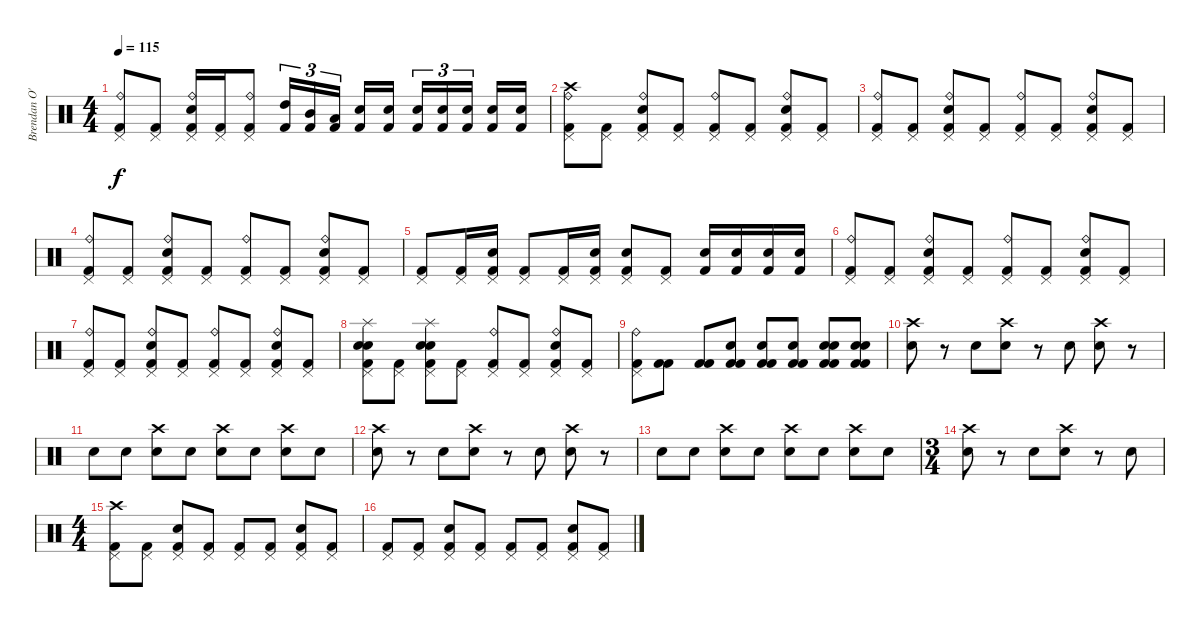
\track ("Brendan O'Neill" "Brendan O'") {instrument percussion}
\staff {score}
\articulation defaults
\ts (4 4)
\tempo 115
\clef neutral
\ks c
("Ride (bell)" "Pedal Hi-Hat (hit)" "Kick (hit) 2").8{dy f} ("Pedal Hi-Hat (hit)" "Kick (hit) 2").8 ("Ride (bell)" "Pedal Hi-Hat (hit)" "Snare (hit) 2" "Kick (hit) 2").16 ("Pedal Hi-Hat (hit)" "Kick (hit) 2").16 ("Ride (bell)" "Pedal Hi-Hat (hit)" "Kick (hit) 2").8 ("High Tom (hit)" "Kick (hit) 2").16{tu (3 2)} ("Mid Tom (hit)" "Kick (hit) 2").16{tu (3 2)} ("Low Tom (hit)" "Kick (hit) 2").16{tu (3 2)} ("Electric Snare (hit)" "Kick (hit) 2").16 ("Snare (hit) 2" "Kick (hit) 2").16 ("Electric Snare (hit)" "Kick (hit) 2").16{tu (3 2)} ("Electric Snare (hit)" "Kick (hit) 2").16{tu (3 2)} ("Electric Snare (hit)" "Kick (hit) 2").16{tu (3 2)} ("Snare (hit) 2" "Kick (hit) 2").16 ("Electric Snare (hit)" "Kick (hit) 2").16 |
("Crash high (hit)" "Ride (bell)" "Pedal Hi-Hat (hit)" "Kick (hit) 2").8 ("Pedal Hi-Hat (hit)" "Kick (hit) 2").8 ("Ride (bell)" "Pedal Hi-Hat (hit)" "Snare (hit) 2" "Kick (hit) 2").8 ("Pedal Hi-Hat (hit)" "Kick (hit) 2").8 ("Ride (bell)" "Pedal Hi-Hat (hit)" "Kick (hit) 2").8 ("Pedal Hi-Hat (hit)" "Kick (hit) 2").8 ("Ride (bell)" "Pedal Hi-Hat (hit)" "Snare (hit) 2" "Kick (hit) 2").8 ("Pedal Hi-Hat (hit)" "Kick (hit) 2").8 |
("Ride (bell)" "Pedal Hi-Hat (hit)" "Kick (hit) 2").8 ("Pedal Hi-Hat (hit)" "Kick (hit) 2").8 ("Ride (bell)" "Pedal Hi-Hat (hit)" "Snare (hit) 2" "Kick (hit) 2").8 ("Pedal Hi-Hat (hit)" "Kick (hit) 2").8 ("Ride (bell)" "Pedal Hi-Hat (hit)" "Kick (hit) 2").8 ("Pedal Hi-Hat (hit)" "Kick (hit) 2").8 ("Ride (bell)" "Pedal Hi-Hat (hit)" "Snare (hit) 2" "Kick (hit) 2").8 ("Pedal Hi-Hat (hit)" "Kick (hit) 2").8 |
("Ride (bell)" "Pedal Hi-Hat (hit)" "Kick (hit) 2").8 ("Pedal Hi-Hat (hit)" "Kick (hit) 2").8 ("Ride (bell)" "Pedal Hi-Hat (hit)" "Snare (hit) 2" "Kick (hit) 2").8 ("Pedal Hi-Hat (hit)" "Kick (hit) 2").8 ("Ride (bell)" "Pedal Hi-Hat (hit)" "Kick (hit) 2").8 ("Pedal Hi-Hat (hit)" "Kick (hit) 2").8 ("Ride (bell)" "Pedal Hi-Hat (hit)" "Snare (hit) 2" "Kick (hit) 2").8 ("Pedal Hi-Hat (hit)" "Kick (hit) 2").8 |
("Pedal Hi-Hat (hit)" "Kick (hit) 2").8 ("Pedal Hi-Hat (hit)" "Kick (hit) 2").16 ("Pedal Hi-Hat (hit)" "Snare (hit) 2" "Kick (hit) 2").16 ("Pedal Hi-Hat (hit)" "Kick (hit) 2").8 ("Pedal Hi-Hat (hit)" "Kick (hit) 2").16 ("Pedal Hi-Hat (hit)" "Snare (hit) 2" "Kick (hit) 2").16 ("Pedal Hi-Hat (hit)" "Snare (hit) 2" "Kick (hit) 2").8 ("Pedal Hi-Hat (hit)" "Kick (hit) 2").8 ("Snare (hit) 2" "Kick (hit) 2").16 ("Snare (hit) 2" "Kick (hit) 2").16 ("Snare (hit) 2" "Kick (hit) 2").16 ("Snare (hit) 2" "Kick (hit) 2").16 |
("Ride (bell)" "Pedal Hi-Hat (hit)" "Kick (hit) 2").8 ("Pedal Hi-Hat (hit)" "Kick (hit) 2").8 ("Ride (bell)" "Pedal Hi-Hat (hit)" "Snare (hit) 2" "Kick (hit) 2").8 ("Pedal Hi-Hat (hit)" "Kick (hit) 2").8 ("Ride (bell)" "Pedal Hi-Hat (hit)" "Kick (hit) 2").8 ("Pedal Hi-Hat (hit)" "Kick (hit) 2").8 ("Ride (bell)" "Pedal Hi-Hat (hit)" "Snare (hit) 2" "Kick (hit) 2").8 ("Pedal Hi-Hat (hit)" "Kick (hit) 2").8 |
("Ride (bell)" "Pedal Hi-Hat (hit)" "Kick (hit) 2").8 ("Pedal Hi-Hat (hit)" "Kick (hit) 2").8 ("Ride (bell)" "Pedal Hi-Hat (hit)" "Snare (hit) 2" "Kick (hit) 2").8 ("Pedal Hi-Hat (hit)" "Kick (hit) 2").8 ("Ride (bell)" "Pedal Hi-Hat (hit)" "Kick (hit) 2").8 ("Pedal Hi-Hat (hit)" "Kick (hit) 2").8 ("Ride (bell)" "Pedal Hi-Hat (hit)" "Snare (hit) 2" "Kick (hit) 2").8 ("Pedal Hi-Hat (hit)" "Kick (hit) 2").8 |
("Splash (hit)" "Snare (hit) 2" "Pedal Hi-Hat (hit)" "Electric Snare (hit)" "Kick (hit) 2").8 ("Pedal Hi-Hat (hit)" "Kick (hit) 2").8 ("Splash (hit)" "Snare (hit) 2" "Pedal Hi-Hat (hit)" "Electric Snare (hit)" "Kick (hit) 2").8 ("Pedal Hi-Hat (hit)" "Kick (hit) 2").8 ("Ride (bell)" "Pedal Hi-Hat (hit)" "Kick (hit) 2").8 ("Pedal Hi-Hat (hit)" "Kick (hit) 2").8 ("Ride (bell)" "Pedal Hi-Hat (hit)" "Snare (hit) 2" "Kick (hit) 2").8 ("Pedal Hi-Hat (hit)" "Kick (hit) 2").8 |
("Ride (bell)" "Pedal Hi-Hat (hit)" "Kick (hit) 2").8 ("Kick (hit) 2" "Kick (hit) 2").8 ("Kick (hit) 2" "Kick (hit) 2").8 ("Snare (hit) 2" "Kick (hit) 2" "Kick (hit) 2").8 ("Snare (hit) 2" "Kick (hit) 2" "Kick (hit) 2").8 ("Snare (hit) 2" "Kick (hit) 2" "Kick (hit) 2").8 ("Electric Snare (hit)" "Snare (hit) 2" "Kick (hit) 2" "Kick (hit) 2").8 ("Electric Snare (hit)" "Snare (hit) 2" "Kick (hit) 2" "Kick (hit) 2").8 |
("Crash high (hit)" "Snare (hit) 2").8 r.8 "Electric Snare (hit)".8 ("Crash high (hit)" "Snare (hit) 2").8 r.8 "Electric Snare (hit)".8 ("Crash high (hit)" "Electric Snare (hit)").8 r.8 |
"Snare (hit) 2".8 "Electric Snare (hit)".8 ("Crash high (hit)" "Snare (hit) 2").8 "Electric Snare (hit)".8 ("Crash high (hit)" "Snare (hit) 2").8 "Electric Snare (hit)".8 ("Crash high (hit)" "Snare (hit) 2").8 "Electric Snare (hit)".8 |
("Crash high (hit)" "Snare (hit) 2").8 r.8 "Electric Snare (hit)".8 ("Crash high (hit)" "Snare (hit) 2").8 r.8 "Electric Snare (hit)".8 ("Crash high (hit)" "Electric Snare (hit)").8 r.8 |
"Snare (hit) 2".8 "Electric Snare (hit)".8 ("Crash high (hit)" "Snare (hit) 2").8 "Electric Snare (hit)".8 ("Crash high (hit)" "Snare (hit) 2").8 "Electric Snare (hit)".8 ("Crash high (hit)" "Snare (hit) 2").8 "Electric Snare (hit)".8 |
\ts (3 4)
("Crash high (hit)" "Snare (hit) 2").8 r.8 "Electric Snare (hit)".8 ("Crash high (hit)" "Snare (hit) 2").8 r.8 "Electric Snare (hit)".8 |
\ts (4 4)
("Crash high (hit)" "Pedal Hi-Hat (hit)" "Kick (hit) 2").8 ("Pedal Hi-Hat (hit)" "Kick (hit) 2").8 ("Pedal Hi-Hat (hit)" "Snare (hit) 2" "Kick (hit) 2").8 ("Pedal Hi-Hat (hit)" "Kick (hit) 2").8 ("Pedal Hi-Hat (hit)" "Kick (hit) 2").8 ("Pedal Hi-Hat (hit)" "Kick (hit) 2").8 ("Pedal Hi-Hat (hit)" "Snare (hit) 2" "Kick (hit) 2").8 ("Pedal Hi-Hat (hit)" "Kick (hit) 2").8 |
("Pedal Hi-Hat (hit)" "Kick (hit) 2").8 ("Pedal Hi-Hat (hit)" "Kick (hit) 2").8 ("Pedal Hi-Hat (hit)" "Snare (hit) 2" "Kick (hit) 2").8 ("Pedal Hi-Hat (hit)" "Kick (hit) 2").8 ("Pedal Hi-Hat (hit)" "Kick (hit) 2").8 ("Pedal Hi-Hat (hit)" "Kick (hit) 2").8 ("Pedal Hi-Hat (hit)" "Snare (hit) 2" "Kick (hit) 2").8 ("Pedal Hi-Hat (hit)" "Kick (hit) 2").8
